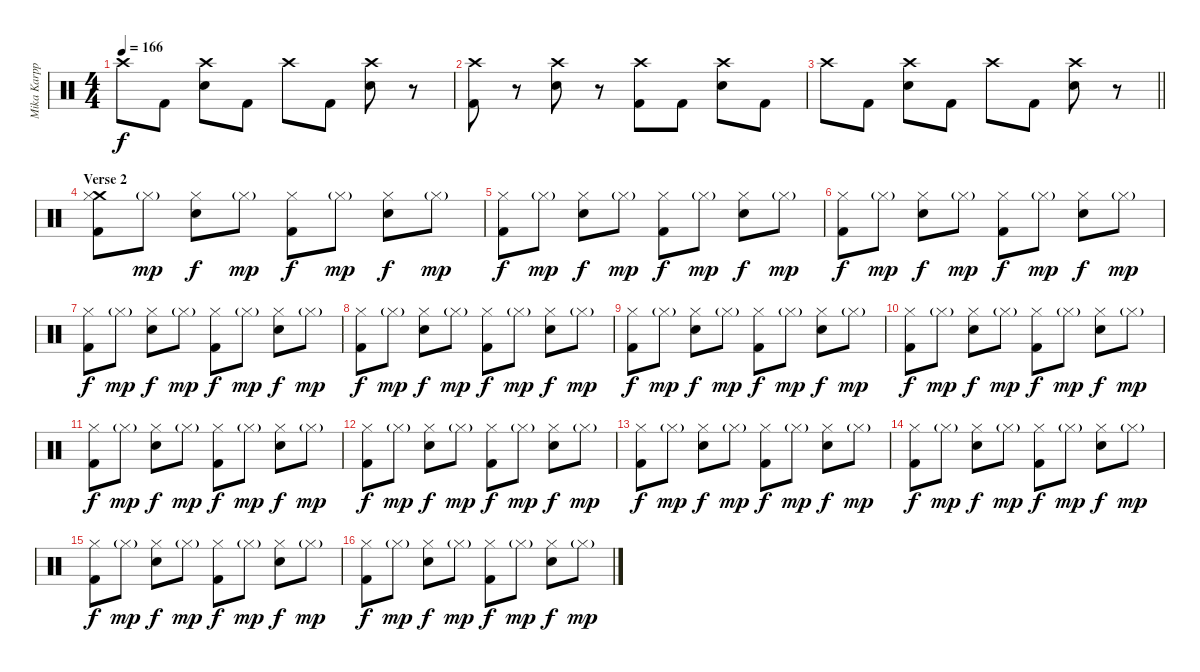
\track ("Mika Karppinen" "Mika Karpp") {instrument percussion}
\staff {score}
\articulation defaults
\ts (4 4)
\tempo 166
\clef neutral
\ks c "Crash high (hit)".8{dy f} "Kick (hit) 2".8
("Crash high (hit)" "Snare (hit) 2").8 "Kick (hit) 2".8 "Crash high (hit)".8 "Kick (hit) 2".8 ("Crash high (hit)" "Snare (hit) 2").8 r.8 |
("Crash high (hit)" "Kick (hit) 2").8 r.8 ("Crash high (hit)" "Snare (hit) 2").8 r.8 ("Crash high (hit)" "Kick (hit) 2").8 "Kick (hit) 2".8 ("Crash high (hit)" "Snare (hit) 2").8 "Kick (hit) 2".8 |
\barLineRight lightlight "Crash high (hit)".8 "Kick (hit) 2".8
("Crash high (hit)" "Snare (hit) 2").8 "Kick (hit) 2".8 "Crash high (hit)".8 "Kick (hit) 2".8 ("Crash high (hit)" "Snare (hit) 2").8 r.8 |
\section ("" "Verse 2")
("Crash medium (hit)" "Hi-Hat (closed)" "Kick (hit) 2").8 "Hi-Hat (closed)"{g}.8{dy mp} ("Hi-Hat (closed)" "Snare (hit) 2").8{dy f} "Hi-Hat (closed)"{g}.8{dy mp} ("Hi-Hat (closed)" "Kick (hit) 2").8{dy f} "Hi-Hat (closed)"{g}.8{dy mp} ("Hi-Hat (closed)" "Snare (hit) 2").8{dy f} "Hi-Hat (closed)"{g}.8{dy mp} |
("Hi-Hat (closed)" "Kick (hit) 2").8{dy f} "Hi-Hat (closed)"{g}.8{dy mp} ("Hi-Hat (closed)" "Snare (hit) 2").8{dy f} "Hi-Hat (closed)"{g}.8{dy mp} ("Hi-Hat (closed)" "Kick (hit) 2").8{dy f} "Hi-Hat (closed)"{g}.8{dy mp} ("Hi-Hat (closed)" "Snare (hit) 2").8{dy f} "Hi-Hat (closed)"{g}.8{dy mp} |
("Hi-Hat (closed)" "Kick (hit) 2").8{dy f} "Hi-Hat (closed)"{g}.8{dy mp} ("Hi-Hat (closed)" "Snare (hit) 2").8{dy f} "Hi-Hat (closed)"{g}.8{dy mp} ("Hi-Hat (closed)" "Kick (hit) 2").8{dy f} "Hi-Hat (closed)"{g}.8{dy mp} ("Hi-Hat (closed)" "Snare (hit) 2").8{dy f} "Hi-Hat (closed)"{g}.8{dy mp} |
("Hi-Hat (closed)" "Kick (hit) 2").8{dy f} "Hi-Hat (closed)"{g}.8{dy mp} ("Hi-Hat (closed)" "Snare (hit) 2").8{dy f} "Hi-Hat (closed)"{g}.8{dy mp} ("Hi-Hat (closed)" "Kick (hit) 2").8{dy f} "Hi-Hat (closed)"{g}.8{dy mp} ("Hi-Hat (closed)" "Snare (hit) 2").8{dy f} "Hi-Hat (closed)"{g}.8{dy mp} |
("Hi-Hat (closed)" "Kick (hit) 2").8{dy f} "Hi-Hat (closed)"{g}.8{dy mp} ("Hi-Hat (closed)" "Snare (hit) 2").8{dy f} "Hi-Hat (closed)"{g}.8{dy mp} ("Hi-Hat (closed)" "Kick (hit) 2").8{dy f} "Hi-Hat (closed)"{g}.8{dy mp} ("Hi-Hat (closed)" "Snare (hit) 2").8{dy f} "Hi-Hat (closed)"{g}.8{dy mp} |
("Hi-Hat (closed)" "Kick (hit) 2").8{dy f} "Hi-Hat (closed)"{g}.8{dy mp} ("Hi-Hat (closed)" "Snare (hit) 2").8{dy f} "Hi-Hat (closed)"{g}.8{dy mp} ("Hi-Hat (closed)" "Kick (hit) 2").8{dy f} "Hi-Hat (closed)"{g}.8{dy mp} ("Hi-Hat (closed)" "Snare (hit) 2").8{dy f} "Hi-Hat (closed)"{g}.8{dy mp} |
("Hi-Hat (closed)" "Kick (hit) 2").8{dy f} "Hi-Hat (closed)"{g}.8{dy mp} ("Hi-Hat (closed)" "Snare (hit) 2").8{dy f} "Hi-Hat (closed)"{g}.8{dy mp} ("Hi-Hat (closed)" "Kick (hit) 2").8{dy f} "Hi-Hat (closed)"{g}.8{dy mp} ("Hi-Hat (closed)" "Snare (hit) 2").8{dy f} "Hi-Hat (closed)"{g}.8{dy mp} |
("Hi-Hat (closed)" "Kick (hit) 2").8{dy f} "Hi-Hat (closed)"{g}.8{dy mp} ("Hi-Hat (closed)" "Snare (hit) 2").8{dy f} "Hi-Hat (closed)"{g}.8{dy mp} ("Hi-Hat (closed)" "Kick (hit) 2").8{dy f} "Hi-Hat (closed)"{g}.8{dy mp} ("Hi-Hat (closed)" "Snare (hit) 2").8{dy f} "Hi-Hat (closed)"{g}.8{dy mp} |
("Hi-Hat (closed)" "Kick (hit) 2").8{dy f} "Hi-Hat (closed)"{g}.8{dy mp} ("Hi-Hat (closed)" "Snare (hit) 2").8{dy f} "Hi-Hat (closed)"{g}.8{dy mp} ("Hi-Hat (closed)" "Kick (hit) 2").8{dy f} "Hi-Hat (closed)"{g}.8{dy mp} ("Hi-Hat (closed)" "Snare (hit) 2").8{dy f} "Hi-Hat (closed)"{g}.8{dy mp} |
("Hi-Hat (closed)" "Kick (hit) 2").8{dy f} "Hi-Hat (closed)"{g}.8{dy mp} ("Hi-Hat (closed)" "Snare (hit) 2").8{dy f} "Hi-Hat (closed)"{g}.8{dy mp} ("Hi-Hat (closed)" "Kick (hit) 2").8{dy f} "Hi-Hat (closed)"{g}.8{dy mp} ("Hi-Hat (closed)" "Snare (hit) 2").8{dy f} "Hi-Hat (closed)"{g}.8{dy mp} |
("Hi-Hat (closed)" "Kick (hit) 2").8{dy f} "Hi-Hat (closed)"{g}.8{dy mp} ("Hi-Hat (closed)" "Snare (hit) 2").8{dy f} "Hi-Hat (closed)"{g}.8{dy mp} ("Hi-Hat (closed)" "Kick (hit) 2").8{dy f} "Hi-Hat (closed)"{g}.8{dy mp} ("Hi-Hat (closed)" "Snare (hit) 2").8{dy f} "Hi-Hat (closed)"{g}.8{dy mp} |
("Hi-Hat (closed)" "Kick (hit) 2").8{dy f} "Hi-Hat (closed)"{g}.8{dy mp} ("Hi-Hat (closed)" "Snare (hit) 2").8{dy f} "Hi-Hat (closed)"{g}.8{dy mp} ("Hi-Hat (closed)" "Kick (hit) 2").8{dy f} "Hi-Hat (closed)"{g}.8{dy mp} ("Hi-Hat (closed)" "Snare (hit) 2").8{dy f} "Hi-Hat (closed)"{g}.8{dy mp} |
("Hi-Hat (closed)" "Kick (hit) 2").8{dy f} "Hi-Hat (closed)"{g}.8{dy mp} ("Hi-Hat (closed)" "Snare (hit) 2").8{dy f} "Hi-Hat (closed)"{g}.8{dy mp} ("Hi-Hat (closed)" "Kick (hit) 2").8{dy f} "Hi-Hat (closed)"{g}.8{dy mp} ("Hi-Hat (closed)" "Snare (hit) 2").8{dy f} "Hi-Hat (closed)"{g}.8{dy mp}
